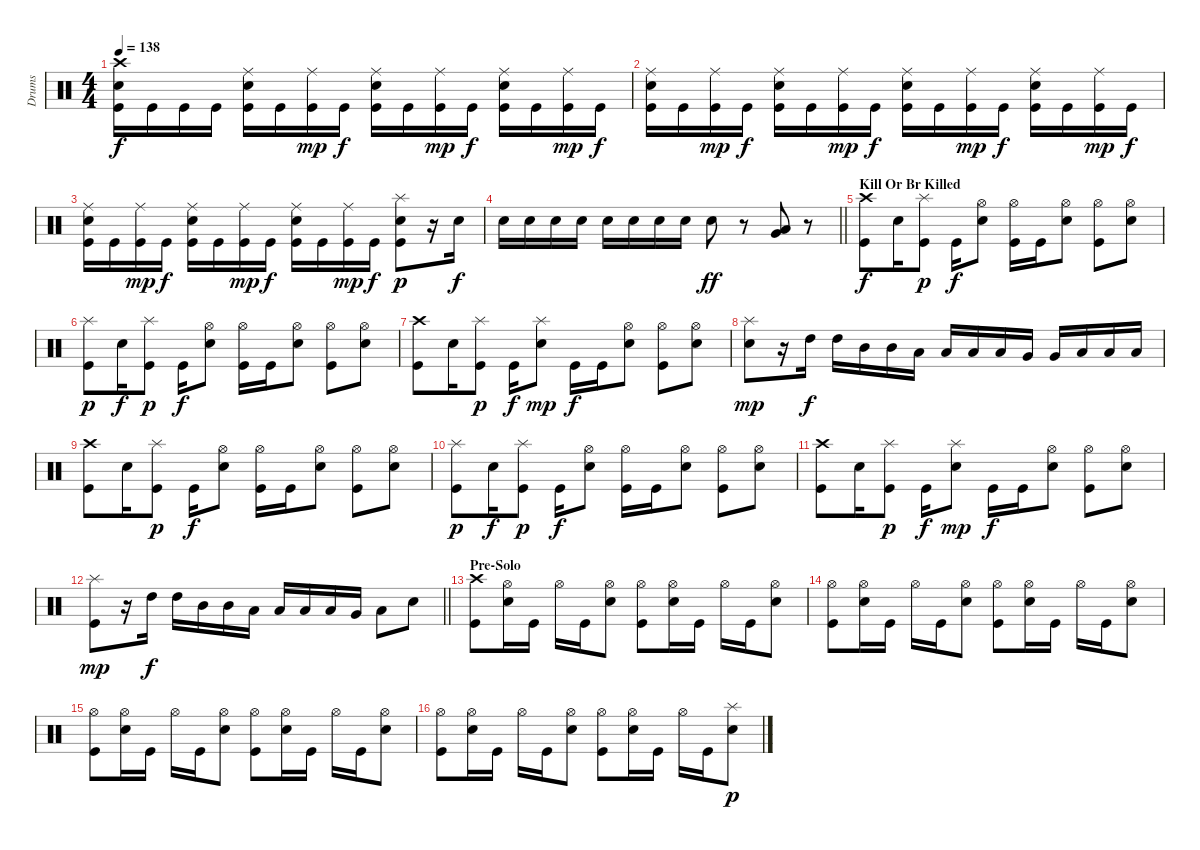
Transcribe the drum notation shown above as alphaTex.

\track ("Drums" "Drums") {instrument percussion}
\staff {score}
\articulation defaults
\ts (4 4)
\tempo 138
\clef neutral
\ks c
("Crash high (hit)" "Electric Snare (hit)" "Kick (hit)").16{dy f} "Kick (hit)".16 "Kick (hit)".16 "Kick (hit)".16 ("Ride (middle)" "Electric Snare (hit)" "Kick (hit)").16 "Kick (hit)".16 ("Ride (middle)" "Kick (hit)").16{dy mp} "Kick (hit)".16{dy f} ("Ride (middle)" "Electric Snare (hit)" "Kick (hit)").16 "Kick (hit)".16 ("Ride (middle)" "Kick (hit)").16{dy mp} "Kick (hit)".16{dy f} ("Ride (middle)" "Electric Snare (hit)" "Kick (hit)").16 "Kick (hit)".16 ("Ride (middle)" "Kick (hit)").16{dy mp} "Kick (hit)".16{dy f} |
("Ride (middle)" "Electric Snare (hit)" "Kick (hit)").16 "Kick (hit)".16 ("Ride (middle)" "Kick (hit)").16{dy mp} "Kick (hit)".16{dy f} ("Ride (middle)" "Electric Snare (hit)" "Kick (hit)").16 "Kick (hit)".16 ("Ride (middle)" "Kick (hit)").16{dy mp} "Kick (hit)".16{dy f} ("Ride (middle)" "Electric Snare (hit)" "Kick (hit)").16 "Kick (hit)".16 ("Ride (middle)" "Kick (hit)").16{dy mp} "Kick (hit)".16{dy f} ("Ride (middle)" "Electric Snare (hit)" "Kick (hit)").16 "Kick (hit)".16 ("Ride (middle)" "Kick (hit)").16{dy mp} "Kick (hit)".16{dy f} |
("Ride (middle)" "Electric Snare (hit)" "Kick (hit)").16 "Kick (hit)".16 ("Ride (middle)" "Kick (hit)").16{dy mp} "Kick (hit)".16{dy f} ("Ride (middle)" "Electric Snare (hit)" "Kick (hit)").16 "Kick (hit)".16 ("Ride (middle)" "Kick (hit)").16{dy mp} "Kick (hit)".16{dy f} ("Ride (middle)" "Electric Snare (hit)" "Kick (hit)").16 "Kick (hit)".16 ("Ride (middle)" "Kick (hit)").16{dy mp} "Kick (hit)".16{dy f} ("Splash (hit)" "Electric Snare (hit)" "Kick (hit)").8{dy p} r.16 "Electric Snare (hit)".16{dy f} |
\barLineRight lightlight "Electric Snare (hit)".16 "Electric Snare (hit)".16 "Electric Snare (hit)".16 "Electric Snare (hit)".16 "Electric Snare (hit)".16 "Electric Snare (hit)".16 "Electric Snare (hit)".16 "Electric Snare (hit)".16 "Electric Snare (hit)".8{dy ff}
r.8 ("Low Floor Tom (hit)" "Very Low Tom (hit)").8 r.8 |
\section ("" "Kill Or Br Killed")
("Crash high (hit)" "Kick (hit)").8{dy f} "Electric Snare (hit)".16 ("Splash (hit)" "Kick (hit)").8{dy p} "Kick (hit)".16{dy f} ("Hi-Hat (open)" "Electric Snare (hit)").8 ("Hi-Hat (open)" "Kick (hit)").16 "Kick (hit)".16 ("Hi-Hat (open)" "Electric Snare (hit)").8 ("Hi-Hat (open)" "Kick (hit)").8 ("Hi-Hat (open)" "Electric Snare (hit)").8 |
("Splash (hit)" "Kick (hit)").8{dy p} "Electric Snare (hit)".16{dy f} ("Splash (hit)" "Kick (hit)").8{dy p} "Kick (hit)".16{dy f} ("Hi-Hat (open)" "Electric Snare (hit)").8 ("Hi-Hat (open)" "Kick (hit)").16 "Kick (hit)".16 ("Hi-Hat (open)" "Electric Snare (hit)").8 ("Hi-Hat (open)" "Kick (hit)").8 ("Hi-Hat (open)" "Electric Snare (hit)").8 |
("Crash high (hit)" "Kick (hit)").8 "Electric Snare (hit)".16 ("Splash (hit)" "Kick (hit)").8{dy p} "Kick (hit)".16{dy f} ("Splash (hit)" "Electric Snare (hit)").8{dy mp} "Kick (hit)".16{dy f} "Kick (hit)".16 ("Hi-Hat (open)" "Electric Snare (hit)").8 ("Hi-Hat (open)" "Kick (hit)").8 ("Hi-Hat (open)" "Electric Snare (hit)").8 |
("Splash (hit)" "Electric Snare (hit)").8{dy mp} r.16 "High Tom (hit)".16{dy f} "High Tom (hit)".16 "Mid Tom (hit)".16 "Mid Tom (hit)".16 "Low Tom (hit)".16 "Low Tom (hit)".16 "Low Tom (hit)".16 "Low Tom (hit)".16 "Very Low Tom (hit)".16 "Very Low Tom (hit)".16 "Low Floor Tom (hit)".16 "Low Floor Tom (hit)".16 "Low Floor Tom (hit)".16 |
("Crash high (hit)" "Kick (hit)").8 "Electric Snare (hit)".16 ("Splash (hit)" "Kick (hit)").8{dy p} "Kick (hit)".16{dy f} ("Hi-Hat (open)" "Electric Snare (hit)").8 ("Hi-Hat (open)" "Kick (hit)").16 "Kick (hit)".16 ("Hi-Hat (open)" "Electric Snare (hit)").8 ("Hi-Hat (open)" "Kick (hit)").8 ("Hi-Hat (open)" "Electric Snare (hit)").8 |
("Splash (hit)" "Kick (hit)").8{dy p} "Electric Snare (hit)".16{dy f} ("Splash (hit)" "Kick (hit)").8{dy p} "Kick (hit)".16{dy f} ("Hi-Hat (open)" "Electric Snare (hit)").8 ("Hi-Hat (open)" "Kick (hit)").16 "Kick (hit)".16 ("Hi-Hat (open)" "Electric Snare (hit)").8 ("Hi-Hat (open)" "Kick (hit)").8 ("Hi-Hat (open)" "Electric Snare (hit)").8 |
("Crash high (hit)" "Kick (hit)").8 "Electric Snare (hit)".16 ("Splash (hit)" "Kick (hit)").8{dy p} "Kick (hit)".16{dy f} ("Splash (hit)" "Electric Snare (hit)").8{dy mp} "Kick (hit)".16{dy f} "Kick (hit)".16 ("Hi-Hat (open)" "Electric Snare (hit)").8 ("Hi-Hat (open)" "Kick (hit)").8 ("Hi-Hat (open)" "Electric Snare (hit)").8 |
\barLineRight lightlight
("Splash (hit)" "Kick (hit)").8{dy mp} r.16 "High Tom (hit)".16{dy f} "High Tom (hit)".16 "Mid Tom (hit)".16 "Mid Tom (hit)".16 "Low Tom (hit)".16 "Low Tom (hit)".16 "Low Tom (hit)".16 "Low Tom (hit)".16 "Very Low Tom (hit)".16 "Low Floor Tom (hit)".8 "Electric Snare (hit)".8 |
\section ("" "Pre-Solo")
("Crash high (hit)" "Kick (hit)").8 ("Hi-Hat (open)" "Electric Snare (hit)").16 "Kick (hit)".16 "Hi-Hat (open)".16 "Kick (hit)".16 ("Hi-Hat (open)" "Electric Snare (hit)").8 ("Hi-Hat (open)" "Kick (hit)").8 ("Hi-Hat (open)" "Electric Snare (hit)").16 "Kick (hit)".16 "Hi-Hat (open)".16 "Kick (hit)".16 ("Hi-Hat (open)" "Electric Snare (hit)").8 |
("Hi-Hat (open)" "Kick (hit)").8 ("Hi-Hat (open)" "Electric Snare (hit)").16 "Kick (hit)".16 "Hi-Hat (open)".16 "Kick (hit)".16 ("Hi-Hat (open)" "Electric Snare (hit)").8 ("Hi-Hat (open)" "Kick (hit)").8 ("Hi-Hat (open)" "Electric Snare (hit)").16 "Kick (hit)".16 "Hi-Hat (open)".16 "Kick (hit)".16 ("Hi-Hat (open)" "Electric Snare (hit)").8 |
("Hi-Hat (open)" "Kick (hit)").8 ("Hi-Hat (open)" "Electric Snare (hit)").16 "Kick (hit)".16 "Hi-Hat (open)".16 "Kick (hit)".16 ("Hi-Hat (open)" "Electric Snare (hit)").8 ("Hi-Hat (open)" "Kick (hit)").8 ("Hi-Hat (open)" "Electric Snare (hit)").16 "Kick (hit)".16 "Hi-Hat (open)".16 "Kick (hit)".16 ("Hi-Hat (open)" "Electric Snare (hit)").8 |
("Hi-Hat (open)" "Kick (hit)").8 ("Hi-Hat (open)" "Electric Snare (hit)").16 "Kick (hit)".16 "Hi-Hat (open)".16 "Kick (hit)".16 ("Hi-Hat (open)" "Electric Snare (hit)").8 ("Hi-Hat (open)" "Kick (hit)").8 ("Hi-Hat (open)" "Electric Snare (hit)").16 "Kick (hit)".16 "Hi-Hat (open)".16 "Kick (hit)".16 ("Splash (hit)" "Electric Snare (hit)").8{dy p}
